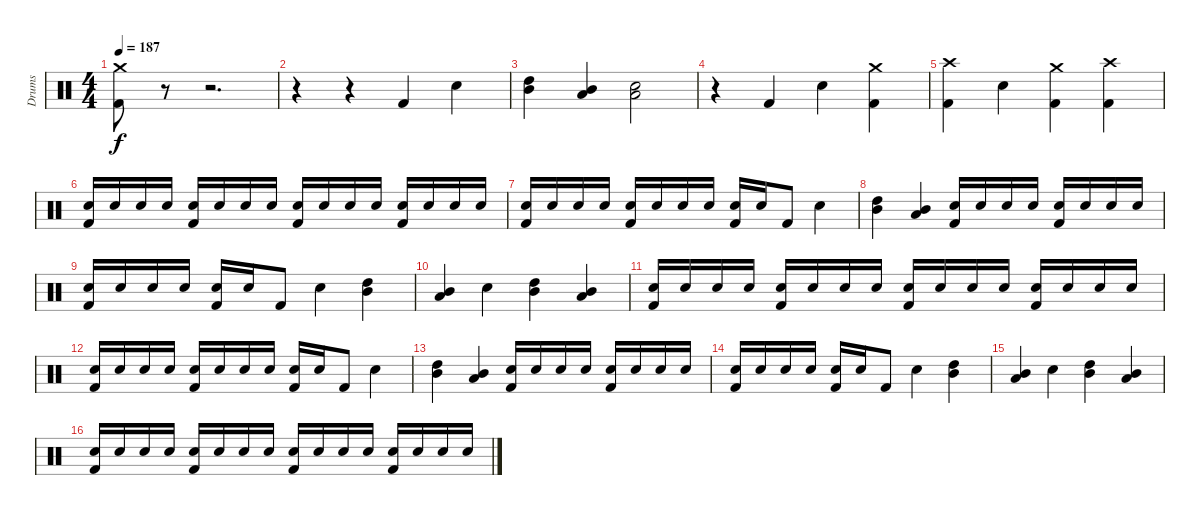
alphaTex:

\track ("Drums" "Drums") {instrument percussion}
\staff {score}
\articulation defaults
\ts (4 4)
\tempo 187
\clef neutral
\ks c
("Crash medium (hit)" "Kick (hit) 2").8{dy f} r.8{volume 0} r.2{d} |
r.4 r.4 "Kick (hit) 2".4{volume 16} "Electric Snare (hit)".4 |
("High Tom (hit)" "Mid Tom (hit)").4 ("Mid Tom (hit)" "Low Tom (hit)").4 ("Low Tom (hit)" "Electric Snare (hit)").2 |
r.4 "Kick (hit) 2".4 "Electric Snare (hit)".4 ("Crash medium (hit)" "Kick (hit) 2").4 |
("Crash high (hit)" "Kick (hit) 2").4 "Electric Snare (hit)".4 ("Crash medium (hit)" "Kick (hit) 2").4 ("Crash high (hit)" "Kick (hit) 2").4 |
("Electric Snare (hit)" "Kick (hit) 2").16 "Electric Snare (hit)".16 "Electric Snare (hit)".16 "Electric Snare (hit)".16 ("Electric Snare (hit)" "Kick (hit) 2").16 "Electric Snare (hit)".16 "Electric Snare (hit)".16 "Electric Snare (hit)".16 ("Electric Snare (hit)" "Kick (hit) 2").16 "Electric Snare (hit)".16 "Electric Snare (hit)".16 "Electric Snare (hit)".16 ("Electric Snare (hit)" "Kick (hit) 2").16 "Electric Snare (hit)".16 "Electric Snare (hit)".16 "Electric Snare (hit)".16 |
("Electric Snare (hit)" "Kick (hit) 2").16 "Electric Snare (hit)".16 "Electric Snare (hit)".16 "Electric Snare (hit)".16 ("Electric Snare (hit)" "Kick (hit) 2").16 "Electric Snare (hit)".16 "Electric Snare (hit)".16 "Electric Snare (hit)".16 ("Electric Snare (hit)" "Kick (hit) 2").16 "Electric Snare (hit)".16 "Kick (hit) 2".8 "Electric Snare (hit)".4 |
("High Tom (hit)" "Mid Tom (hit)").4 ("Mid Tom (hit)" "Low Tom (hit)").4 ("Electric Snare (hit)" "Kick (hit) 2").16 "Electric Snare (hit)".16 "Electric Snare (hit)".16 "Electric Snare (hit)".16 ("Electric Snare (hit)" "Kick (hit) 2").16 "Electric Snare (hit)".16 "Electric Snare (hit)".16 "Electric Snare (hit)".16 |
("Electric Snare (hit)" "Kick (hit) 2").16 "Electric Snare (hit)".16 "Electric Snare (hit)".16 "Electric Snare (hit)".16 ("Electric Snare (hit)" "Kick (hit) 2").16 "Electric Snare (hit)".16 "Kick (hit) 2".8 "Electric Snare (hit)".4 ("High Tom (hit)" "Mid Tom (hit)").4 |
("Mid Tom (hit)" "Low Tom (hit)").4 "Electric Snare (hit)".4 ("High Tom (hit)" "Mid Tom (hit)").4 ("Mid Tom (hit)" "Low Tom (hit)").4 |
("Electric Snare (hit)" "Kick (hit) 2").16 "Electric Snare (hit)".16 "Electric Snare (hit)".16 "Electric Snare (hit)".16 ("Electric Snare (hit)" "Kick (hit) 2").16 "Electric Snare (hit)".16 "Electric Snare (hit)".16 "Electric Snare (hit)".16 ("Electric Snare (hit)" "Kick (hit) 2").16 "Electric Snare (hit)".16 "Electric Snare (hit)".16 "Electric Snare (hit)".16 ("Electric Snare (hit)" "Kick (hit) 2").16 "Electric Snare (hit)".16 "Electric Snare (hit)".16 "Electric Snare (hit)".16 |
("Electric Snare (hit)" "Kick (hit) 2").16 "Electric Snare (hit)".16 "Electric Snare (hit)".16 "Electric Snare (hit)".16 ("Electric Snare (hit)" "Kick (hit) 2").16 "Electric Snare (hit)".16 "Electric Snare (hit)".16 "Electric Snare (hit)".16 ("Electric Snare (hit)" "Kick (hit) 2").16 "Electric Snare (hit)".16 "Kick (hit) 2".8 "Electric Snare (hit)".4 |
("High Tom (hit)" "Mid Tom (hit)").4 ("Mid Tom (hit)" "Low Tom (hit)").4 ("Electric Snare (hit)" "Kick (hit) 2").16 "Electric Snare (hit)".16 "Electric Snare (hit)".16 "Electric Snare (hit)".16 ("Electric Snare (hit)" "Kick (hit) 2").16 "Electric Snare (hit)".16 "Electric Snare (hit)".16 "Electric Snare (hit)".16 |
("Electric Snare (hit)" "Kick (hit) 2").16 "Electric Snare (hit)".16 "Electric Snare (hit)".16 "Electric Snare (hit)".16 ("Electric Snare (hit)" "Kick (hit) 2").16 "Electric Snare (hit)".16 "Kick (hit) 2".8 "Electric Snare (hit)".4 ("High Tom (hit)" "Mid Tom (hit)").4 |
("Mid Tom (hit)" "Low Tom (hit)").4 "Electric Snare (hit)".4 ("High Tom (hit)" "Mid Tom (hit)").4 ("Mid Tom (hit)" "Low Tom (hit)").4 |
("Electric Snare (hit)" "Kick (hit) 2").16 "Electric Snare (hit)".16 "Electric Snare (hit)".16 "Electric Snare (hit)".16 ("Electric Snare (hit)" "Kick (hit) 2").16 "Electric Snare (hit)".16 "Electric Snare (hit)".16 "Electric Snare (hit)".16 ("Electric Snare (hit)" "Kick (hit) 2").16 "Electric Snare (hit)".16 "Electric Snare (hit)".16 "Electric Snare (hit)".16 ("Electric Snare (hit)" "Kick (hit) 2").16 "Electric Snare (hit)".16 "Electric Snare (hit)".16 "Electric Snare (hit)".16
